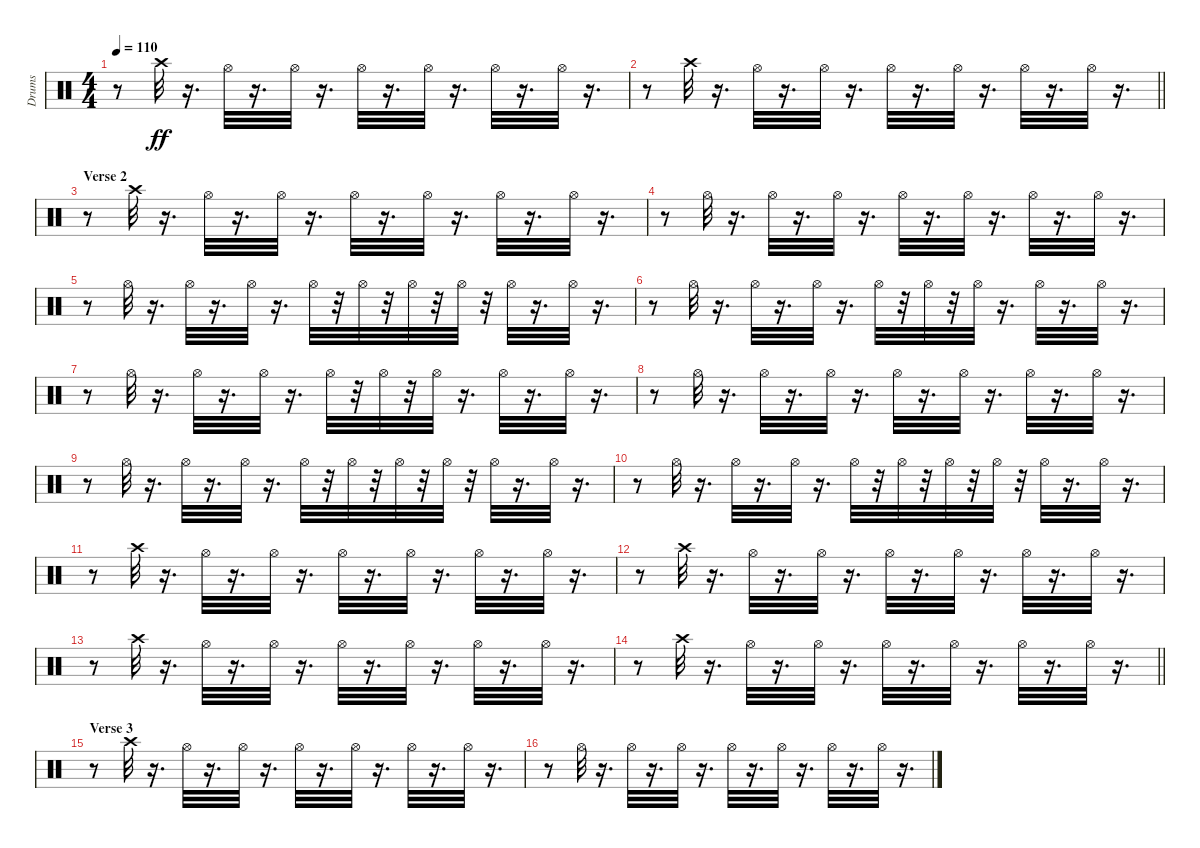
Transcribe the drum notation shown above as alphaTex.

\track ("Drums" "Drums") {instrument percussion}
\staff {score}
\articulation defaults
\ts (4 4)
\tempo 110
\clef neutral
\ks c
r.8{dy ff} "Crash high (hit)".32 r.16{d} "Hi-Hat (open)".32 r.16{d} "Hi-Hat (open)".32 r.16{d} "Hi-Hat (open)".32 r.16{d} "Hi-Hat (open)".32 r.16{d} "Hi-Hat (open)".32 r.16{d} "Hi-Hat (open)".32 r.16{d} |
\barLineRight lightlight
r.8 "Crash high (hit)".32 r.16{d} "Hi-Hat (open)".32 r.16{d} "Hi-Hat (open)".32 r.16{d} "Hi-Hat (open)".32 r.16{d} "Hi-Hat (open)".32 r.16{d} "Hi-Hat (open)".32 r.16{d} "Hi-Hat (open)".32 r.16{d} |
\section ("" "Verse 2")
r.8 "Crash high (hit)".32 r.16{d} "Hi-Hat (open)".32 r.16{d} "Hi-Hat (open)".32 r.16{d} "Hi-Hat (open)".32 r.16{d} "Hi-Hat (open)".32 r.16{d} "Hi-Hat (open)".32 r.16{d} "Hi-Hat (open)".32 r.16{d} |
r.8 "Hi-Hat (open)".32 r.16{d} "Hi-Hat (open)".32 r.16{d} "Hi-Hat (open)".32 r.16{d} "Hi-Hat (open)".32 r.16{d} "Hi-Hat (open)".32 r.16{d} "Hi-Hat (open)".32 r.16{d} "Hi-Hat (open)".32 r.16{d} |
r.8 "Hi-Hat (open)".32 r.16{d} "Hi-Hat (open)".32 r.16{d} "Hi-Hat (open)".32 r.16{d} "Hi-Hat (open)".32 r.32 "Hi-Hat (open)".32 r.32 "Hi-Hat (open)".32 r.32 "Hi-Hat (open)".32 r.32 "Hi-Hat (open)".32 r.16{d} "Hi-Hat (open)".32 r.16{d} |
r.8 "Hi-Hat (open)".32 r.16{d} "Hi-Hat (open)".32 r.16{d} "Hi-Hat (open)".32 r.16{d} "Hi-Hat (open)".32 r.32 "Hi-Hat (open)".32 r.32 "Hi-Hat (open)".32 r.16{d} "Hi-Hat (open)".32 r.16{d} "Hi-Hat (open)".32 r.16{d} |
r.8 "Hi-Hat (open)".32 r.16{d} "Hi-Hat (open)".32 r.16{d} "Hi-Hat (open)".32 r.16{d} "Hi-Hat (open)".32 r.32 "Hi-Hat (open)".32 r.32 "Hi-Hat (open)".32 r.16{d} "Hi-Hat (open)".32 r.16{d} "Hi-Hat (open)".32 r.16{d} |
r.8 "Hi-Hat (open)".32 r.16{d} "Hi-Hat (open)".32 r.16{d} "Hi-Hat (open)".32 r.16{d} "Hi-Hat (open)".32 r.16{d} "Hi-Hat (open)".32 r.16{d} "Hi-Hat (open)".32 r.16{d} "Hi-Hat (open)".32 r.16{d} |
r.8 "Hi-Hat (open)".32 r.16{d} "Hi-Hat (open)".32 r.16{d} "Hi-Hat (open)".32 r.16{d} "Hi-Hat (open)".32 r.32 "Hi-Hat (open)".32 r.32 "Hi-Hat (open)".32 r.32 "Hi-Hat (open)".32 r.32 "Hi-Hat (open)".32 r.16{d} "Hi-Hat (open)".32 r.16{d} |
r.8 "Hi-Hat (open)".32 r.16{d} "Hi-Hat (open)".32 r.16{d} "Hi-Hat (open)".32 r.16{d} "Hi-Hat (open)".32 r.32 "Hi-Hat (open)".32 r.32 "Hi-Hat (open)".32 r.32 "Hi-Hat (open)".32 r.32 "Hi-Hat (open)".32 r.16{d} "Hi-Hat (open)".32 r.16{d} |
r.8 "Crash high (hit)".32 r.16{d} "Hi-Hat (open)".32 r.16{d} "Hi-Hat (open)".32 r.16{d} "Hi-Hat (open)".32 r.16{d} "Hi-Hat (open)".32 r.16{d} "Hi-Hat (open)".32 r.16{d} "Hi-Hat (open)".32 r.16{d} |
r.8 "Crash high (hit)".32 r.16{d} "Hi-Hat (open)".32 r.16{d} "Hi-Hat (open)".32 r.16{d} "Hi-Hat (open)".32 r.16{d} "Hi-Hat (open)".32 r.16{d} "Hi-Hat (open)".32 r.16{d} "Hi-Hat (open)".32 r.16{d} |
r.8 "Crash high (hit)".32 r.16{d} "Hi-Hat (open)".32 r.16{d} "Hi-Hat (open)".32 r.16{d} "Hi-Hat (open)".32 r.16{d} "Hi-Hat (open)".32 r.16{d} "Hi-Hat (open)".32 r.16{d} "Hi-Hat (open)".32 r.16{d} |
\barLineRight lightlight
r.8 "Crash high (hit)".32 r.16{d} "Hi-Hat (open)".32 r.16{d} "Hi-Hat (open)".32 r.16{d} "Hi-Hat (open)".32 r.16{d} "Hi-Hat (open)".32 r.16{d} "Hi-Hat (open)".32 r.16{d} "Hi-Hat (open)".32 r.16{d} |
\section ("" "Verse 3")
r.8 "Crash high (hit)".32 r.16{d} "Hi-Hat (open)".32 r.16{d} "Hi-Hat (open)".32 r.16{d} "Hi-Hat (open)".32 r.16{d} "Hi-Hat (open)".32 r.16{d} "Hi-Hat (open)".32 r.16{d} "Hi-Hat (open)".32 r.16{d} |
r.8 "Hi-Hat (open)".32 r.16{d} "Hi-Hat (open)".32 r.16{d} "Hi-Hat (open)".32 r.16{d} "Hi-Hat (open)".32 r.16{d} "Hi-Hat (open)".32 r.16{d} "Hi-Hat (open)".32 r.16{d} "Hi-Hat (open)".32 r.16{d}
